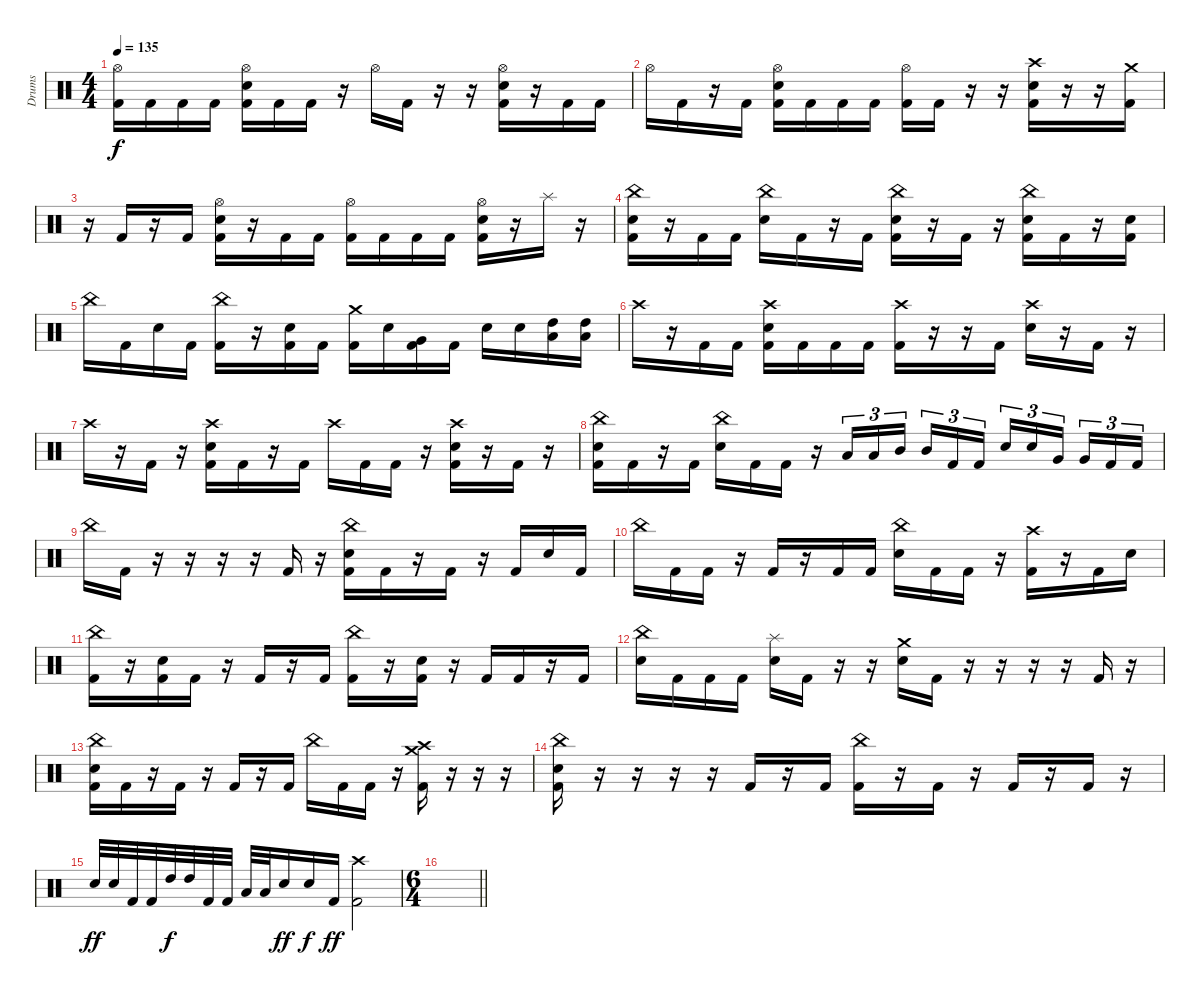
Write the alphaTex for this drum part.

\track ("Drums" "Drums") {instrument percussion}
\staff {score}
\articulation defaults
\ts (4 4)
\tempo 135
\clef neutral
\ks c
("Hi-Hat (open)" "Kick (hit) 2").16{dy f} "Kick (hit) 2".16 "Kick (hit) 2".16 "Kick (hit) 2".16 ("Hi-Hat (open)" "Snare (hit) 2" "Kick (hit) 2").16 "Kick (hit) 2".16 "Kick (hit) 2".16 r.16 "Hi-Hat (open)".16 "Kick (hit) 2".16 r.16 r.16 ("Hi-Hat (open)" "Snare (hit) 2" "Kick (hit) 2").16 r.16 "Kick (hit) 2".16 "Kick (hit) 2".16 |
"Hi-Hat (open)".16 "Kick (hit) 2".16 r.16 "Kick (hit) 2".16 ("Hi-Hat (open)" "Snare (hit) 2" "Kick (hit) 2").16 "Kick (hit) 2".16 "Kick (hit) 2".16 "Kick (hit) 2".16 ("Hi-Hat (open)" "Kick (hit) 2").16 "Kick (hit) 2".16 r.16 r.16 ("Crash high (hit)" "Snare (hit) 2" "Kick (hit) 2").16 r.16 r.16 ("Crash medium (hit)" "Kick (hit) 2").16 |
r.16 "Kick (hit) 2".16 r.16 "Kick (hit) 2".16 ("Hi-Hat (open)" "Snare (hit) 2" "Kick (hit) 2").16 r.16 "Kick (hit) 2".16 "Kick (hit) 2".16 ("Hi-Hat (open)" "Kick (hit) 2").16 "Kick (hit) 2".16 "Kick (hit) 2".16 "Kick (hit) 2".16 ("Hi-Hat (open)" "Snare (hit) 2" "Kick (hit) 2").16 r.16 "Splash (hit)".16 r.16 |
("China (hit)" "Snare (hit) 2" "Kick (hit) 2").16 r.16 "Kick (hit) 2".16 "Kick (hit) 2".16 ("China (hit)" "Snare (hit) 2").16 "Kick (hit) 2".16 r.16 "Kick (hit) 2".16 ("China (hit)" "Snare (hit) 2" "Kick (hit) 2").16 r.16 "Kick (hit) 2".16 r.16 ("China (hit)" "Snare (hit) 2" "Kick (hit) 2").16 "Kick (hit) 2".16 r.16 ("Snare (hit) 2" "Kick (hit) 2").16 |
"China (hit)".16 "Kick (hit) 2".16 "Snare (hit) 2".16 "Kick (hit) 2".16 ("China (hit)" "Kick (hit) 2").16 r.16 ("Snare (hit) 2" "Kick (hit) 2").16 "Kick (hit) 2".16 ("Crash medium (hit)" "Kick (hit) 2").16 "Snare (hit) 2".16 ("Very Low Tom (hit)" "Kick (hit) 2").16 "Kick (hit) 2".16 "Snare (hit) 2".16 "Snare (hit) 2".16 ("High Tom (hit)" "Low Floor Tom (hit)").16 ("High Tom (hit)" "Low Floor Tom (hit)").16 |
"Crash high (hit)".16 r.16 "Kick (hit) 2".16 "Kick (hit) 2".16 ("Crash high (hit)" "Snare (hit) 2" "Kick (hit) 2").16 "Kick (hit) 2".16 "Kick (hit) 2".16 "Kick (hit) 2".16 ("Crash high (hit)" "Kick (hit) 2").16 r.16 r.16 "Kick (hit) 2".16 ("Crash high (hit)" "Snare (hit) 2").16 r.16 "Kick (hit) 2".16 r.16 |
"Crash high (hit)".16 r.16 "Kick (hit) 2".16 r.16 ("Crash high (hit)" "Snare (hit) 2" "Kick (hit) 2").16 "Kick (hit) 2".16 r.16 "Kick (hit) 2".16 "Crash high (hit)".16 "Kick (hit) 2".16 "Kick (hit) 2".16 r.16 ("Crash high (hit)" "Snare (hit) 2" "Kick (hit) 2").16 r.16 "Kick (hit) 2".16 r.16 |
("China (hit)" "Snare (hit) 2" "Kick (hit) 2").16 "Kick (hit) 2".16 r.16 "Kick (hit) 2".16 ("China (hit)" "Snare (hit) 2").16 "Kick (hit) 2".16 "Kick (hit) 2".16 r.16 "Low Tom (hit)".16{tu (3 2)} "Low Tom (hit)".16{tu (3 2)} "Mid Tom (hit)".16{tu (3 2) beam splitsecondary} "Mid Tom (hit)".16{tu (3 2)} "Kick (hit) 2".16{tu (3 2)} "Kick (hit) 2".16{tu (3 2)} "Snare (hit) 2".16{tu (3 2)} "Snare (hit) 2".16{tu (3 2)} "Very Low Tom (hit)".16{tu (3 2) beam splitsecondary} "Very Low Tom (hit)".16{tu (3 2)} "Kick (hit) 2".16{tu (3 2)} "Kick (hit) 2".16{tu (3 2)} |
"China (hit)".16 "Kick (hit) 2".16 r.16 r.16 r.16 r.16 "Kick (hit) 2".16 r.16 ("China (hit)" "Snare (hit) 2" "Kick (hit) 2").16 "Kick (hit) 2".16 r.16 "Kick (hit) 2".16 r.16 "Kick (hit) 2".16 "Snare (hit) 2".16 "Kick (hit) 2".16 |
"China (hit)".16 "Kick (hit) 2".16 "Kick (hit) 2".16 r.16 "Kick (hit) 2".16 r.16 "Kick (hit) 2".16 "Kick (hit) 2".16 ("China (hit)" "Snare (hit) 2").16 "Kick (hit) 2".16 "Kick (hit) 2".16 r.16 ("Crash high (hit)" "Kick (hit) 2").16 r.16 "Kick (hit) 2".16 "Snare (hit) 2".16 |
("China (hit)" "Kick (hit) 2").16 r.16 ("Snare (hit) 2" "Kick (hit) 2").16 "Kick (hit) 2".16 r.16 "Kick (hit) 2".16 r.16 "Kick (hit) 2".16 ("China (hit)" "Kick (hit) 2").16 r.16 ("Snare (hit) 2" "Kick (hit) 2").16 r.16 "Kick (hit) 2".16 "Kick (hit) 2".16 r.16 "Kick (hit) 2".16 |
("China (hit)" "Snare (hit) 2").16 "Kick (hit) 2".16 "Kick (hit) 2".16 "Kick (hit) 2".16 ("Splash (hit)" "Snare (hit) 2").16 "Kick (hit) 2".16 r.16 r.16 ("Crash medium (hit)" "Snare (hit) 2").16 "Kick (hit) 2".16 r.16 r.16 r.16 r.16 "Kick (hit) 2".16 r.16 |
("China (hit)" "Snare (hit) 2" "Kick (hit) 2").16 "Kick (hit) 2".16 r.16 "Kick (hit) 2".16 r.16 "Kick (hit) 2".16 r.16 "Kick (hit) 2".16 "China (hit)".16 "Kick (hit) 2".16 "Kick (hit) 2".16 r.16 ("Crash medium (hit)" "Crash high (hit)" "Kick (hit) 2").16 r.16 r.16 r.16 |
("China (hit)" "Snare (hit) 2" "Kick (hit) 2").16 r.16 r.16 r.16 r.16 "Kick (hit) 2".16 r.16 "Kick (hit) 2".16 ("China (hit)" "Kick (hit) 2").16 r.16 "Kick (hit) 2".16 r.16 "Kick (hit) 2".16 r.16 "Kick (hit) 2".16 r.16 |
"Snare (hit) 2".32{dy ff} "Snare (hit) 2".32 "Kick (hit) 2".32 "Kick (hit) 2".32 "High Tom (hit)".32{dy f} "High Tom (hit)".32 "Kick (hit) 2".32 "Kick (hit) 2".32 "Low Tom (hit)".32 "Low Tom (hit)".32 "Snare (hit) 2".16{dy ff} "Snare (hit) 2".16{dy f} "Kick (hit) 2".16{dy ff} ("Crash high (hit)" "Kick (hit) 2").2 |
\ts (6 4)
\barLineRight lightlight
